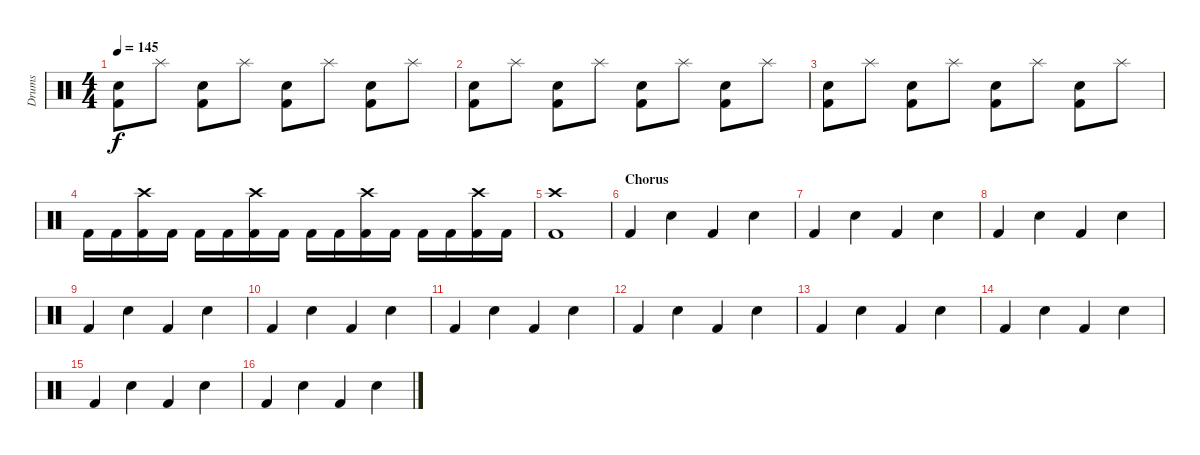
\track ("Drums" "Drums") {instrument percussion}
\staff {score}
\articulation defaults
\ts (4 4)
\tempo 145
\clef neutral
\ks c
("Electric Snare (hit)" "Kick (hit) 2").8{dy f} "Splash (hit)".8 ("Electric Snare (hit)" "Kick (hit) 2").8 "Splash (hit)".8 ("Electric Snare (hit)" "Kick (hit) 2").8 "Splash (hit)".8 ("Electric Snare (hit)" "Kick (hit) 2").8 "Splash (hit)".8 |
("Electric Snare (hit)" "Kick (hit) 2").8 "Splash (hit)".8 ("Electric Snare (hit)" "Kick (hit) 2").8 "Splash (hit)".8 ("Electric Snare (hit)" "Kick (hit) 2").8 "Splash (hit)".8 ("Electric Snare (hit)" "Kick (hit) 2").8 "Splash (hit)".8 |
("Electric Snare (hit)" "Kick (hit) 2").8 "Splash (hit)".8 ("Electric Snare (hit)" "Kick (hit) 2").8 "Splash (hit)".8 ("Electric Snare (hit)" "Kick (hit) 2").8 "Splash (hit)".8 ("Electric Snare (hit)" "Kick (hit) 2").8 "Splash (hit)".8 |
"Kick (hit) 2".16 "Kick (hit) 2".16 ("Crash high (hit)" "Kick (hit) 2").16 "Kick (hit) 2".16 "Kick (hit) 2".16 "Kick (hit) 2".16 ("Crash high (hit)" "Kick (hit) 2").16 "Kick (hit) 2".16 "Kick (hit) 2".16 "Kick (hit) 2".16 ("Crash high (hit)" "Kick (hit) 2").16 "Kick (hit) 2".16 "Kick (hit) 2".16 "Kick (hit) 2".16 ("Crash high (hit)" "Kick (hit) 2").16 "Kick (hit) 2".16 |
("Crash high (hit)" "Kick (hit) 2").1 |
\section ("" "Chorus")
"Kick (hit) 2".4 "Snare (hit) 2".4 "Kick (hit) 2".4 "Snare (hit) 2".4 |
"Kick (hit) 2".4 "Snare (hit) 2".4 "Kick (hit) 2".4 "Snare (hit) 2".4 |
"Kick (hit) 2".4 "Snare (hit) 2".4 "Kick (hit) 2".4 "Snare (hit) 2".4 |
"Kick (hit) 2".4 "Snare (hit) 2".4 "Kick (hit) 2".4 "Snare (hit) 2".4 |
"Kick (hit) 2".4 "Snare (hit) 2".4 "Kick (hit) 2".4 "Snare (hit) 2".4 |
"Kick (hit) 2".4 "Snare (hit) 2".4 "Kick (hit) 2".4 "Snare (hit) 2".4 |
"Kick (hit) 2".4 "Snare (hit) 2".4 "Kick (hit) 2".4 "Snare (hit) 2".4 |
"Kick (hit) 2".4 "Snare (hit) 2".4 "Kick (hit) 2".4 "Snare (hit) 2".4 |
"Kick (hit) 2".4 "Snare (hit) 2".4 "Kick (hit) 2".4 "Snare (hit) 2".4 |
"Kick (hit) 2".4 "Snare (hit) 2".4 "Kick (hit) 2".4 "Snare (hit) 2".4 |
"Kick (hit) 2".4 "Snare (hit) 2".4 "Kick (hit) 2".4 "Snare (hit) 2".4
